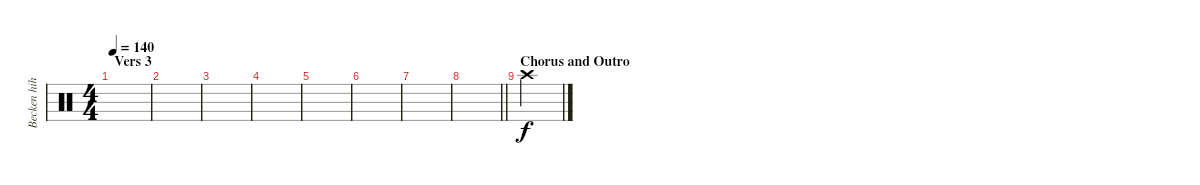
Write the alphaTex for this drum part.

\track ("Becken hihihi :)" "Becken hih") {instrument percussion}
\staff {score}
\articulation defaults
\ts (4 4)
\section ("" "Vers 3")
\tempo 140
\clef neutral
\ks c
|
|
|
|
|
|
|
\barLineRight lightlight
|
\section ("" "Chorus and Outro")
"Crash high (hit)".4
